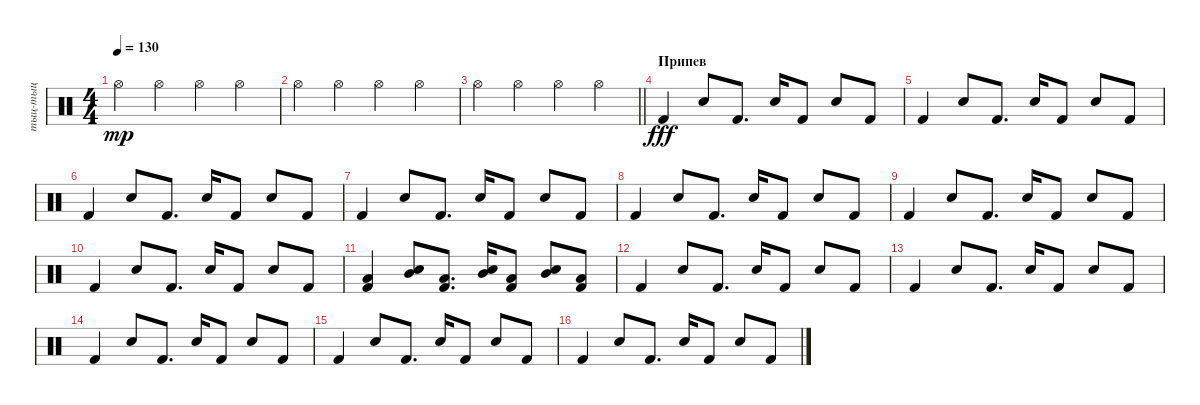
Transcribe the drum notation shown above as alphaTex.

\track ("тыц-тыц" "тыц-тыц") {instrument percussion}
\staff {score}
\articulation defaults
\ts (4 4)
\tempo 130
\clef neutral
\ks c "Hi-Hat (open)".4{dy mp} "Hi-Hat (open)".4 "Hi-Hat (open)".4 "Hi-Hat (open)".4
|
"Hi-Hat (open)".4 "Hi-Hat (open)".4 "Hi-Hat (open)".4 "Hi-Hat (open)".4 |
\barLineRight lightlight "Hi-Hat (open)".4 "Hi-Hat (open)".4 "Hi-Hat (open)".4 "Hi-Hat (open)".4
|
\section ("" "Припев")
"Kick (hit) 2".4{dy fff} "Snare (hit) 2".8 "Kick (hit) 2".8{d} "Snare (hit) 2".16 "Kick (hit) 2".8 "Snare (hit) 2".8 "Kick (hit) 2".8 |
"Kick (hit) 2".4 "Snare (hit) 2".8 "Kick (hit) 2".8{d} "Snare (hit) 2".16 "Kick (hit) 2".8 "Snare (hit) 2".8 "Kick (hit) 2".8 |
"Kick (hit) 2".4 "Snare (hit) 2".8 "Kick (hit) 2".8{d} "Snare (hit) 2".16 "Kick (hit) 2".8 "Snare (hit) 2".8 "Kick (hit) 2".8 |
"Kick (hit) 2".4 "Snare (hit) 2".8 "Kick (hit) 2".8{d} "Snare (hit) 2".16 "Kick (hit) 2".8 "Snare (hit) 2".8 "Kick (hit) 2".8 |
"Kick (hit) 2".4 "Snare (hit) 2".8 "Kick (hit) 2".8{d} "Snare (hit) 2".16 "Kick (hit) 2".8 "Snare (hit) 2".8 "Kick (hit) 2".8 |
"Kick (hit) 2".4 "Snare (hit) 2".8 "Kick (hit) 2".8{d} "Snare (hit) 2".16 "Kick (hit) 2".8 "Snare (hit) 2".8 "Kick (hit) 2".8 |
"Kick (hit) 2".4 "Snare (hit) 2".8 "Kick (hit) 2".8{d} "Snare (hit) 2".16 "Kick (hit) 2".8 "Snare (hit) 2".8 "Kick (hit) 2".8 |
("Low Tom (hit)" "Kick (hit) 2").4 ("Mid Tom (hit)" "Snare (hit) 2").8 ("Low Tom (hit)" "Kick (hit) 2").8{d} ("Mid Tom (hit)" "Snare (hit) 2").16 ("Low Tom (hit)" "Kick (hit) 2").8 ("Mid Tom (hit)" "Snare (hit) 2").8 ("Low Tom (hit)" "Kick (hit) 2").8 |
"Kick (hit) 2".4 "Snare (hit) 2".8 "Kick (hit) 2".8{d} "Snare (hit) 2".16 "Kick (hit) 2".8 "Snare (hit) 2".8 "Kick (hit) 2".8 |
"Kick (hit) 2".4 "Snare (hit) 2".8 "Kick (hit) 2".8{d} "Snare (hit) 2".16 "Kick (hit) 2".8 "Snare (hit) 2".8 "Kick (hit) 2".8 |
"Kick (hit) 2".4 "Snare (hit) 2".8 "Kick (hit) 2".8{d} "Snare (hit) 2".16 "Kick (hit) 2".8 "Snare (hit) 2".8 "Kick (hit) 2".8 |
"Kick (hit) 2".4 "Snare (hit) 2".8 "Kick (hit) 2".8{d} "Snare (hit) 2".16 "Kick (hit) 2".8 "Snare (hit) 2".8 "Kick (hit) 2".8 |
"Kick (hit) 2".4 "Snare (hit) 2".8 "Kick (hit) 2".8{d} "Snare (hit) 2".16 "Kick (hit) 2".8 "Snare (hit) 2".8 "Kick (hit) 2".8
